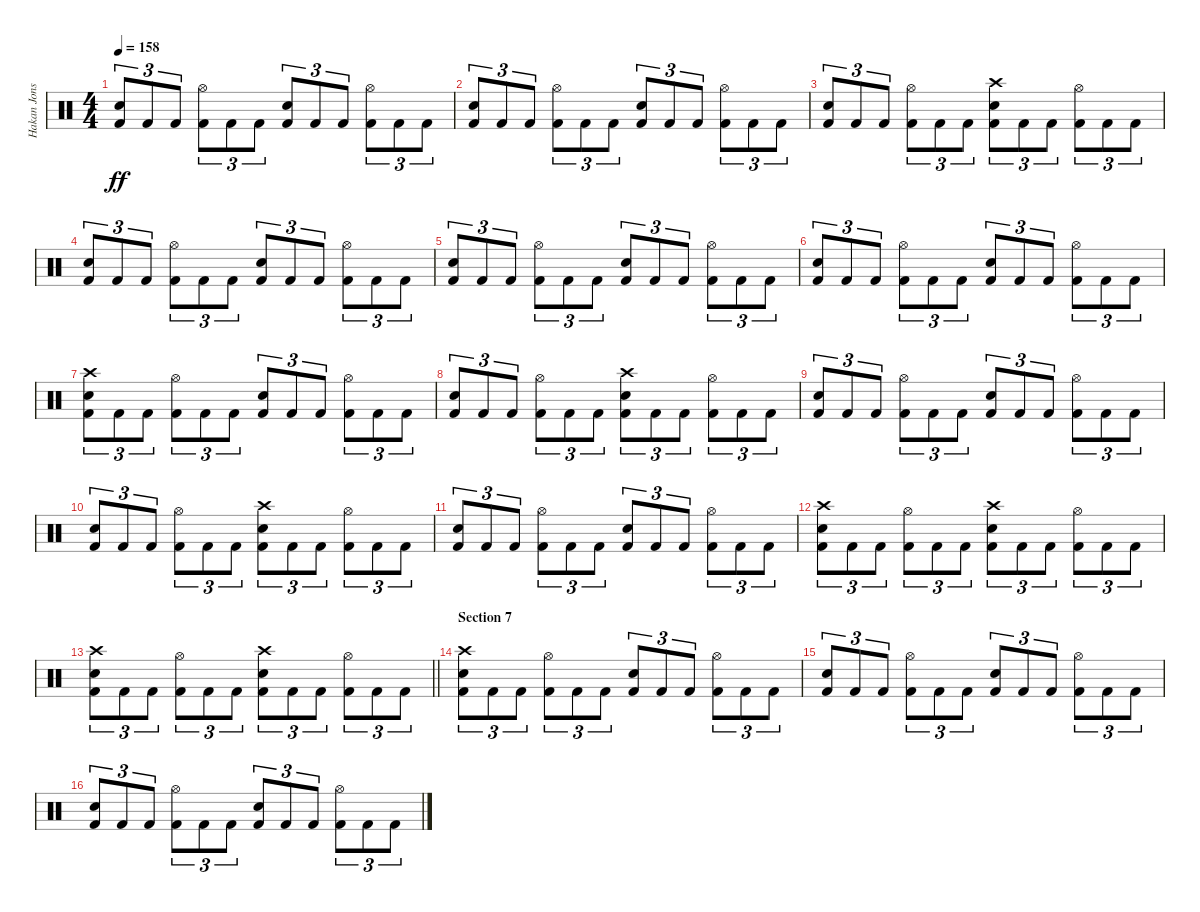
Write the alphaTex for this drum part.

\track ("Hakan Jonsson" "Hakan Jons") {instrument percussion}
\staff {score}
\articulation defaults
\ts (4 4)
\tempo 158
\clef neutral
\ks c
("Electric Snare (hit)" "Kick (hit) 2").8{tu (3 2) dy ff} "Kick (hit) 2".8{tu (3 2)} "Kick (hit) 2".8{tu (3 2)} ("Hi-Hat (open)" "Kick (hit) 2").8{tu (3 2)} "Kick (hit) 2".8{tu (3 2)} "Kick (hit) 2".8{tu (3 2)} ("Electric Snare (hit)" "Kick (hit) 2").8{tu (3 2)} "Kick (hit) 2".8{tu (3 2)} "Kick (hit) 2".8{tu (3 2)} ("Hi-Hat (open)" "Kick (hit) 2").8{tu (3 2)} "Kick (hit) 2".8{tu (3 2)} "Kick (hit) 2".8{tu (3 2)} |
("Electric Snare (hit)" "Kick (hit) 2").8{tu (3 2)} "Kick (hit) 2".8{tu (3 2)} "Kick (hit) 2".8{tu (3 2)} ("Hi-Hat (open)" "Kick (hit) 2").8{tu (3 2)} "Kick (hit) 2".8{tu (3 2)} "Kick (hit) 2".8{tu (3 2)} ("Electric Snare (hit)" "Kick (hit) 2").8{tu (3 2)} "Kick (hit) 2".8{tu (3 2)} "Kick (hit) 2".8{tu (3 2)} ("Hi-Hat (open)" "Kick (hit) 2").8{tu (3 2)} "Kick (hit) 2".8{tu (3 2)} "Kick (hit) 2".8{tu (3 2)} |
("Electric Snare (hit)" "Kick (hit) 2").8{tu (3 2)} "Kick (hit) 2".8{tu (3 2)} "Kick (hit) 2".8{tu (3 2)} ("Hi-Hat (open)" "Kick (hit) 2").8{tu (3 2)} "Kick (hit) 2".8{tu (3 2)} "Kick (hit) 2".8{tu (3 2)} ("Crash high (hit)" "Electric Snare (hit)" "Kick (hit) 2").8{tu (3 2)} "Kick (hit) 2".8{tu (3 2)} "Kick (hit) 2".8{tu (3 2)} ("Hi-Hat (open)" "Kick (hit) 2").8{tu (3 2)} "Kick (hit) 2".8{tu (3 2)} "Kick (hit) 2".8{tu (3 2)} |
("Electric Snare (hit)" "Kick (hit) 2").8{tu (3 2)} "Kick (hit) 2".8{tu (3 2)} "Kick (hit) 2".8{tu (3 2)} ("Hi-Hat (open)" "Kick (hit) 2").8{tu (3 2)} "Kick (hit) 2".8{tu (3 2)} "Kick (hit) 2".8{tu (3 2)} ("Electric Snare (hit)" "Kick (hit) 2").8{tu (3 2)} "Kick (hit) 2".8{tu (3 2)} "Kick (hit) 2".8{tu (3 2)} ("Hi-Hat (open)" "Kick (hit) 2").8{tu (3 2)} "Kick (hit) 2".8{tu (3 2)} "Kick (hit) 2".8{tu (3 2)} |
("Electric Snare (hit)" "Kick (hit) 2").8{tu (3 2)} "Kick (hit) 2".8{tu (3 2)} "Kick (hit) 2".8{tu (3 2)} ("Hi-Hat (open)" "Kick (hit) 2").8{tu (3 2)} "Kick (hit) 2".8{tu (3 2)} "Kick (hit) 2".8{tu (3 2)} ("Electric Snare (hit)" "Kick (hit) 2").8{tu (3 2)} "Kick (hit) 2".8{tu (3 2)} "Kick (hit) 2".8{tu (3 2)} ("Hi-Hat (open)" "Kick (hit) 2").8{tu (3 2)} "Kick (hit) 2".8{tu (3 2)} "Kick (hit) 2".8{tu (3 2)} |
("Electric Snare (hit)" "Kick (hit) 2").8{tu (3 2)} "Kick (hit) 2".8{tu (3 2)} "Kick (hit) 2".8{tu (3 2)} ("Hi-Hat (open)" "Kick (hit) 2").8{tu (3 2)} "Kick (hit) 2".8{tu (3 2)} "Kick (hit) 2".8{tu (3 2)} ("Electric Snare (hit)" "Kick (hit) 2").8{tu (3 2)} "Kick (hit) 2".8{tu (3 2)} "Kick (hit) 2".8{tu (3 2)} ("Hi-Hat (open)" "Kick (hit) 2").8{tu (3 2)} "Kick (hit) 2".8{tu (3 2)} "Kick (hit) 2".8{tu (3 2)} |
("Crash high (hit)" "Electric Snare (hit)" "Kick (hit) 2").8{tu (3 2)} "Kick (hit) 2".8{tu (3 2)} "Kick (hit) 2".8{tu (3 2)} ("Hi-Hat (open)" "Kick (hit) 2").8{tu (3 2)} "Kick (hit) 2".8{tu (3 2)} "Kick (hit) 2".8{tu (3 2)} ("Electric Snare (hit)" "Kick (hit) 2").8{tu (3 2)} "Kick (hit) 2".8{tu (3 2)} "Kick (hit) 2".8{tu (3 2)} ("Hi-Hat (open)" "Kick (hit) 2").8{tu (3 2)} "Kick (hit) 2".8{tu (3 2)} "Kick (hit) 2".8{tu (3 2)} |
("Electric Snare (hit)" "Kick (hit) 2").8{tu (3 2)} "Kick (hit) 2".8{tu (3 2)} "Kick (hit) 2".8{tu (3 2)} ("Hi-Hat (open)" "Kick (hit) 2").8{tu (3 2)} "Kick (hit) 2".8{tu (3 2)} "Kick (hit) 2".8{tu (3 2)} ("Crash high (hit)" "Electric Snare (hit)" "Kick (hit) 2").8{tu (3 2)} "Kick (hit) 2".8{tu (3 2)} "Kick (hit) 2".8{tu (3 2)} ("Hi-Hat (open)" "Kick (hit) 2").8{tu (3 2)} "Kick (hit) 2".8{tu (3 2)} "Kick (hit) 2".8{tu (3 2)} |
("Electric Snare (hit)" "Kick (hit) 2").8{tu (3 2)} "Kick (hit) 2".8{tu (3 2)} "Kick (hit) 2".8{tu (3 2)} ("Hi-Hat (open)" "Kick (hit) 2").8{tu (3 2)} "Kick (hit) 2".8{tu (3 2)} "Kick (hit) 2".8{tu (3 2)} ("Electric Snare (hit)" "Kick (hit) 2").8{tu (3 2)} "Kick (hit) 2".8{tu (3 2)} "Kick (hit) 2".8{tu (3 2)} ("Hi-Hat (open)" "Kick (hit) 2").8{tu (3 2)} "Kick (hit) 2".8{tu (3 2)} "Kick (hit) 2".8{tu (3 2)} |
("Electric Snare (hit)" "Kick (hit) 2").8{tu (3 2)} "Kick (hit) 2".8{tu (3 2)} "Kick (hit) 2".8{tu (3 2)} ("Hi-Hat (open)" "Kick (hit) 2").8{tu (3 2)} "Kick (hit) 2".8{tu (3 2)} "Kick (hit) 2".8{tu (3 2)} ("Crash high (hit)" "Electric Snare (hit)" "Kick (hit) 2").8{tu (3 2)} "Kick (hit) 2".8{tu (3 2)} "Kick (hit) 2".8{tu (3 2)} ("Hi-Hat (open)" "Kick (hit) 2").8{tu (3 2)} "Kick (hit) 2".8{tu (3 2)} "Kick (hit) 2".8{tu (3 2)} |
("Electric Snare (hit)" "Kick (hit) 2").8{tu (3 2)} "Kick (hit) 2".8{tu (3 2)} "Kick (hit) 2".8{tu (3 2)} ("Hi-Hat (open)" "Kick (hit) 2").8{tu (3 2)} "Kick (hit) 2".8{tu (3 2)} "Kick (hit) 2".8{tu (3 2)} ("Electric Snare (hit)" "Kick (hit) 2").8{tu (3 2)} "Kick (hit) 2".8{tu (3 2)} "Kick (hit) 2".8{tu (3 2)} ("Hi-Hat (open)" "Kick (hit) 2").8{tu (3 2)} "Kick (hit) 2".8{tu (3 2)} "Kick (hit) 2".8{tu (3 2)} |
("Crash high (hit)" "Electric Snare (hit)" "Kick (hit) 2").8{tu (3 2)} "Kick (hit) 2".8{tu (3 2)} "Kick (hit) 2".8{tu (3 2)} ("Hi-Hat (open)" "Kick (hit) 2").8{tu (3 2)} "Kick (hit) 2".8{tu (3 2)} "Kick (hit) 2".8{tu (3 2)} ("Crash high (hit)" "Electric Snare (hit)" "Kick (hit) 2").8{tu (3 2)} "Kick (hit) 2".8{tu (3 2)} "Kick (hit) 2".8{tu (3 2)} ("Hi-Hat (open)" "Kick (hit) 2").8{tu (3 2)} "Kick (hit) 2".8{tu (3 2)} "Kick (hit) 2".8{tu (3 2)} |
\barLineRight lightlight
("Crash high (hit)" "Electric Snare (hit)" "Kick (hit) 2").8{tu (3 2)} "Kick (hit) 2".8{tu (3 2)} "Kick (hit) 2".8{tu (3 2)} ("Hi-Hat (open)" "Kick (hit) 2").8{tu (3 2)} "Kick (hit) 2".8{tu (3 2)} "Kick (hit) 2".8{tu (3 2)} ("Crash high (hit)" "Electric Snare (hit)" "Kick (hit) 2").8{tu (3 2)} "Kick (hit) 2".8{tu (3 2)} "Kick (hit) 2".8{tu (3 2)} ("Hi-Hat (open)" "Kick (hit) 2").8{tu (3 2)} "Kick (hit) 2".8{tu (3 2)} "Kick (hit) 2".8{tu (3 2)} |
\section ("" "Section 7")
("Crash high (hit)" "Electric Snare (hit)" "Kick (hit) 2").8{tu (3 2)} "Kick (hit) 2".8{tu (3 2)} "Kick (hit) 2".8{tu (3 2)} ("Hi-Hat (open)" "Kick (hit) 2").8{tu (3 2)} "Kick (hit) 2".8{tu (3 2)} "Kick (hit) 2".8{tu (3 2)} ("Electric Snare (hit)" "Kick (hit) 2").8{tu (3 2)} "Kick (hit) 2".8{tu (3 2)} "Kick (hit) 2".8{tu (3 2)} ("Hi-Hat (open)" "Kick (hit) 2").8{tu (3 2)} "Kick (hit) 2".8{tu (3 2)} "Kick (hit) 2".8{tu (3 2)} |
("Electric Snare (hit)" "Kick (hit) 2").8{tu (3 2)} "Kick (hit) 2".8{tu (3 2)} "Kick (hit) 2".8{tu (3 2)} ("Hi-Hat (open)" "Kick (hit) 2").8{tu (3 2)} "Kick (hit) 2".8{tu (3 2)} "Kick (hit) 2".8{tu (3 2)} ("Electric Snare (hit)" "Kick (hit) 2").8{tu (3 2)} "Kick (hit) 2".8{tu (3 2)} "Kick (hit) 2".8{tu (3 2)} ("Hi-Hat (open)" "Kick (hit) 2").8{tu (3 2)} "Kick (hit) 2".8{tu (3 2)} "Kick (hit) 2".8{tu (3 2)} |
("Electric Snare (hit)" "Kick (hit) 2").8{tu (3 2)} "Kick (hit) 2".8{tu (3 2)} "Kick (hit) 2".8{tu (3 2)} ("Hi-Hat (open)" "Kick (hit) 2").8{tu (3 2)} "Kick (hit) 2".8{tu (3 2)} "Kick (hit) 2".8{tu (3 2)} ("Electric Snare (hit)" "Kick (hit) 2").8{tu (3 2)} "Kick (hit) 2".8{tu (3 2)} "Kick (hit) 2".8{tu (3 2)} ("Hi-Hat (open)" "Kick (hit) 2").8{tu (3 2)} "Kick (hit) 2".8{tu (3 2)} "Kick (hit) 2".8{tu (3 2)}
